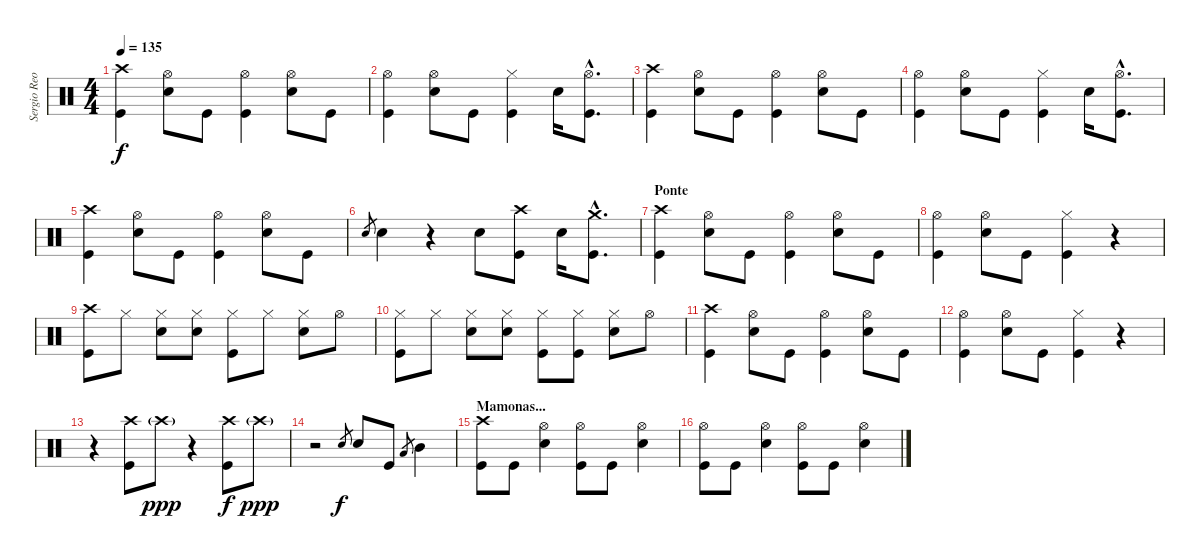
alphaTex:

\track ("Sergio Reoli" "Sergio Reo") {instrument percussion}
\staff {score}
\articulation defaults
\ts (4 4)
\tempo 135
\clef neutral
\ks c
("Crash high (hit)" "Kick (hit)").4{dy f} ("Hi-Hat (open)" "Electric Snare (hit)").8 "Kick (hit)".8 ("Hi-Hat (open)" "Kick (hit)").4 ("Hi-Hat (open)" "Electric Snare (hit)").8 "Kick (hit)".8 |
("Hi-Hat (open)" "Kick (hit)").4 ("Hi-Hat (open)" "Electric Snare (hit)").8 "Kick (hit)".8 ("Hi-Hat (closed)" "Kick (hit)").4 "Electric Snare (hit)".16 ("Hi-Hat (open)"{hac} "Kick (hit)"{hac}).8{d} |
("Crash high (hit)" "Kick (hit)").4 ("Hi-Hat (open)" "Electric Snare (hit)").8 "Kick (hit)".8 ("Hi-Hat (open)" "Kick (hit)").4 ("Hi-Hat (open)" "Electric Snare (hit)").8 "Kick (hit)".8 |
("Hi-Hat (open)" "Kick (hit)").4 ("Hi-Hat (open)" "Electric Snare (hit)").8 "Kick (hit)".8 ("Hi-Hat (closed)" "Kick (hit)").4 "Electric Snare (hit)".16 ("Hi-Hat (open)"{hac} "Kick (hit)"{hac}).8{d} |
("Crash high (hit)" "Kick (hit)").4 ("Hi-Hat (open)" "Electric Snare (hit)").8 "Kick (hit)".8 ("Hi-Hat (open)" "Kick (hit)").4 ("Hi-Hat (open)" "Electric Snare (hit)").8 "Kick (hit)".8 |
"Electric Snare (hit)".8{gr} "Electric Snare (hit)".4 r.4 "Electric Snare (hit)".8 ("Crash high (hit)" "Kick (hit)").8 "Electric Snare (hit)".16 ("Crash medium (hit)"{hac} "Kick (hit)"{hac}).8{d} |
\section ("" "Ponte")
("Crash high (hit)" "Kick (hit)").4 ("Hi-Hat (open)" "Electric Snare (hit)").8 "Kick (hit)".8 ("Hi-Hat (open)" "Kick (hit)").4 ("Hi-Hat (open)" "Electric Snare (hit)").8 "Kick (hit)".8 |
("Hi-Hat (open)" "Kick (hit)").4 ("Hi-Hat (open)" "Electric Snare (hit)").8 "Kick (hit)".8 ("Hi-Hat (closed)" "Kick (hit)").4 r.4 |
("Crash high (hit)" "Kick (hit)").8 "Hi-Hat (closed)".8 ("Hi-Hat (closed)" "Electric Snare (hit)").8 ("Hi-Hat (closed)" "Electric Snare (hit)").8 ("Hi-Hat (closed)" "Kick (hit)").8 "Hi-Hat (closed)".8 ("Hi-Hat (closed)" "Electric Snare (hit)").8 "Hi-Hat (open)".8 |
("Hi-Hat (closed)" "Kick (hit)").8 "Hi-Hat (closed)".8 ("Hi-Hat (closed)" "Electric Snare (hit)").8 ("Hi-Hat (closed)" "Electric Snare (hit)").8 ("Hi-Hat (closed)" "Kick (hit)").8 ("Hi-Hat (closed)" "Kick (hit)").8 ("Hi-Hat (closed)" "Electric Snare (hit)").8 "Hi-Hat (open)".8 |
("Crash high (hit)" "Kick (hit)").4 ("Hi-Hat (open)" "Electric Snare (hit)").8 "Kick (hit)".8 ("Hi-Hat (open)" "Kick (hit)").4 ("Hi-Hat (open)" "Electric Snare (hit)").8 "Kick (hit)".8 |
("Hi-Hat (open)" "Kick (hit)").4 ("Hi-Hat (open)" "Electric Snare (hit)").8 "Kick (hit)".8 ("Hi-Hat (closed)" "Kick (hit)").4 r.4 |
r.4 ("Crash high (hit)" "Kick (hit)").8 "Crash high (hit)"{g}.8{dy ppp} r.4 ("Crash high (hit)" "Kick (hit)").8{dy f} "Crash high (hit)"{g}.8{dy ppp} |
r.2 "Electric Snare (hit)".8{gr dy f} "Electric Snare (hit)".8 "Kick (hit)".8 "Low Tom (hit)".8{gr} "Mid Tom (hit)".4 |
\section ("" "Mamonas...")
("Crash high (hit)" "Kick (hit)").8 "Kick (hit)".8 ("Hi-Hat (open)" "Electric Snare (hit)").4 ("Hi-Hat (open)" "Kick (hit)").8 "Kick (hit)".8 ("Hi-Hat (open)" "Electric Snare (hit)").4 |
("Hi-Hat (open)" "Kick (hit)").8 "Kick (hit)".8 ("Hi-Hat (open)" "Electric Snare (hit)").4 ("Hi-Hat (open)" "Kick (hit)").8 "Kick (hit)".8 ("Hi-Hat (open)" "Electric Snare (hit)").4
